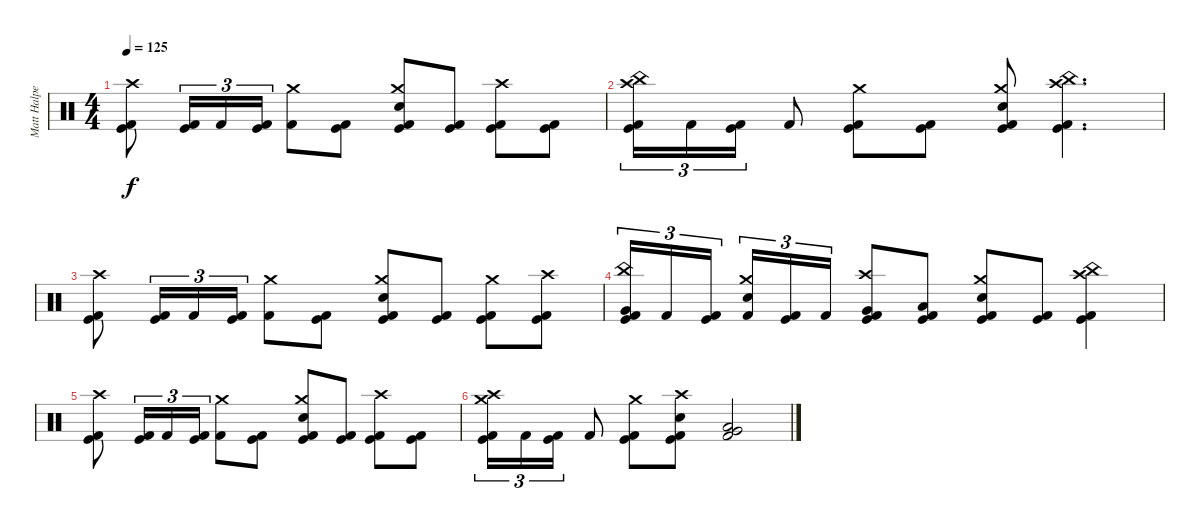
\track ("Matt Halpern" "Matt Halpe") {instrument percussion}
\staff {score}
\articulation defaults
\ts (4 4)
\tempo 125
\clef neutral
\ks c
("Kick (hit) 2" "Kick (hit)" "Crash high (hit)").8{dy f} ("Kick (hit) 2" "Kick (hit)").16{tu (3 2)} "Kick (hit) 2".16{tu (3 2)} ("Kick (hit) 2" "Kick (hit)").16{tu (3 2)} ("Kick (hit) 2" "Crash medium (hit)").8 ("Kick (hit) 2" "Kick (hit)").8 ("Kick (hit) 2" "Kick (hit)" "Electric Snare (hit)" "Crash medium (hit)").8 ("Kick (hit) 2" "Kick (hit)").8 ("Kick (hit) 2" "Kick (hit)" "Crash high (hit)").8 ("Kick (hit) 2" "Kick (hit)").8 |
("Kick (hit) 2" "Kick (hit)" "China (hit)" "Crash high (hit)").16{tu (3 2)} "Kick (hit) 2".16{tu (3 2)} ("Kick (hit) 2" "Kick (hit)").16{tu (3 2)} "Kick (hit) 2".8 ("Kick (hit) 2" "Kick (hit)" "Crash medium (hit)").8 ("Kick (hit) 2" "Kick (hit)").8 ("Kick (hit) 2" "Kick (hit)" "Electric Snare (hit)" "Crash medium (hit)").8 ("Kick (hit) 2" "Kick (hit)" "China (hit)" "Crash high (hit)").4{d} |
("Kick (hit) 2" "Kick (hit)" "Crash high (hit)").8 ("Kick (hit) 2" "Kick (hit)").16{tu (3 2)} "Kick (hit) 2".16{tu (3 2)} ("Kick (hit) 2" "Kick (hit)").16{tu (3 2)} ("Kick (hit) 2" "Crash medium (hit)").8 ("Kick (hit) 2" "Kick (hit)").8 ("Kick (hit) 2" "Kick (hit)" "Electric Snare (hit)" "Crash medium (hit)").8 ("Kick (hit) 2" "Kick (hit)").8 ("Kick (hit) 2" "Kick (hit)" "Crash medium (hit)").8 ("Kick (hit) 2" "Kick (hit)" "Crash high (hit)").8 |
("Kick (hit) 2" "Kick (hit)" "Very Low Tom (hit)" "China (hit)").16{tu (3 2)} "Kick (hit) 2".16{tu (3 2)} ("Kick (hit) 2" "Kick (hit)").16{tu (3 2) beam splitsecondary} ("Kick (hit) 2" "Electric Snare (hit)" "Crash medium (hit)").16{tu (3 2)} ("Kick (hit) 2" "Kick (hit)").16{tu (3 2)} "Kick (hit) 2".16{tu (3 2)} ("Kick (hit) 2" "Kick (hit)" "Very Low Tom (hit)" "Crash high (hit)").8 ("Kick (hit) 2" "Kick (hit)" "Low Floor Tom (hit)").8 ("Kick (hit) 2" "Kick (hit)" "Electric Snare (hit)" "Crash medium (hit)").8 ("Kick (hit) 2" "Kick (hit)").8 ("Kick (hit) 2" "Kick (hit)" "China (hit)" "Crash high (hit)").4 |
("Kick (hit) 2" "Kick (hit)" "Crash high (hit)").8 ("Kick (hit) 2" "Kick (hit)").16{tu (3 2)} "Kick (hit) 2".16{tu (3 2)} ("Kick (hit) 2" "Kick (hit)").16{tu (3 2)} ("Kick (hit) 2" "Crash medium (hit)").8 ("Kick (hit) 2" "Kick (hit)").8 ("Kick (hit) 2" "Kick (hit)" "Electric Snare (hit)" "Crash medium (hit)").8 ("Kick (hit) 2" "Kick (hit)").8 ("Kick (hit) 2" "Kick (hit)" "Crash high (hit)").8 ("Kick (hit) 2" "Kick (hit)").8 |
("Kick (hit) 2" "Kick (hit)" "Crash high (hit)" "Crash medium (hit)").16{tu (3 2)} "Kick (hit) 2".16{tu (3 2)} ("Kick (hit) 2" "Kick (hit)").16{tu (3 2)} "Kick (hit) 2".8 ("Kick (hit) 2" "Kick (hit)" "Crash medium (hit)").8 ("Kick (hit) 2" "Kick (hit)" "Electric Snare (hit)" "Crash high (hit)").8 ("Kick (hit) 2" "Very Low Tom (hit)" "Low Floor Tom (hit)").2
